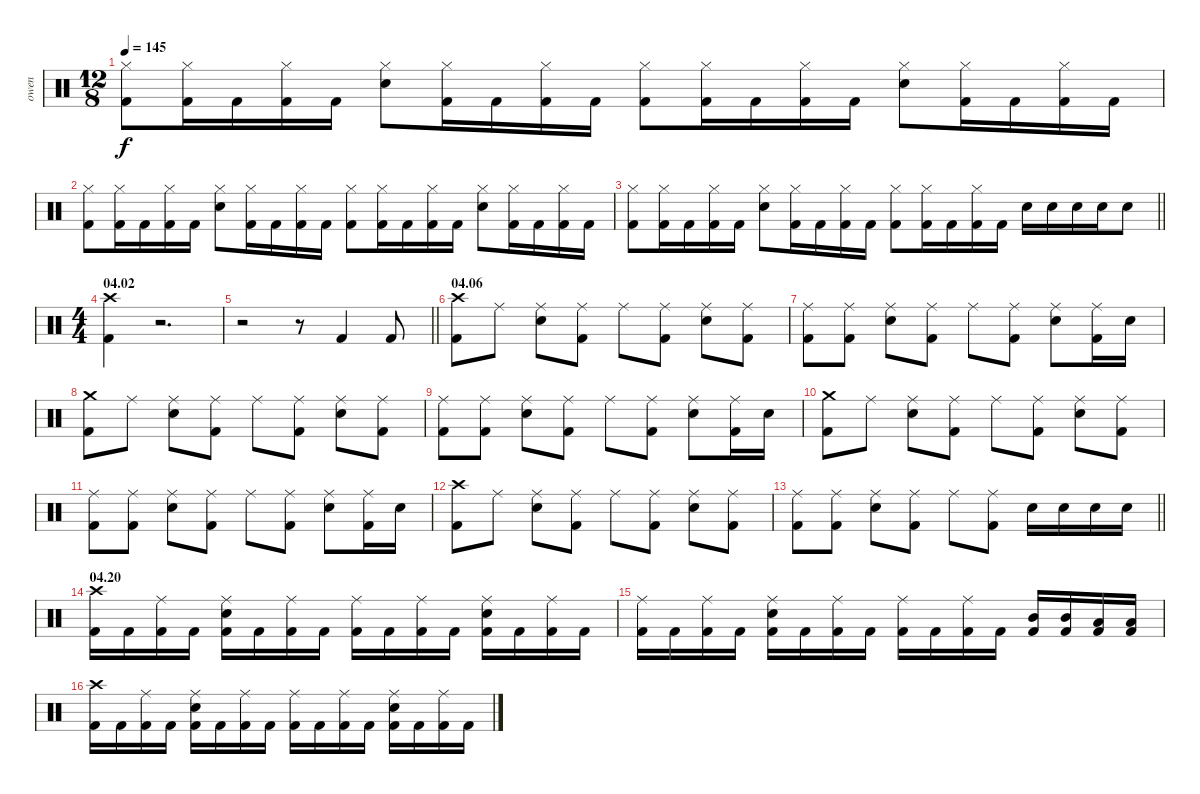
\track ("owen" "owen") {instrument percussion}
\staff {score}
\articulation defaults
\ts (12 8)
\tempo 145
\clef neutral
\ks c
("Hi-Hat (closed)" "Kick (hit) 2").8{dy f} ("Hi-Hat (closed)" "Kick (hit) 2").16 "Kick (hit) 2".16 ("Hi-Hat (closed)" "Kick (hit) 2").16 "Kick (hit) 2".16 ("Hi-Hat (closed)" "Snare (hit) 2").8 ("Hi-Hat (closed)" "Kick (hit) 2").16 "Kick (hit) 2".16 ("Hi-Hat (closed)" "Kick (hit) 2").16 "Kick (hit) 2".16 ("Hi-Hat (closed)" "Kick (hit) 2").8 ("Hi-Hat (closed)" "Kick (hit) 2").16 "Kick (hit) 2".16 ("Hi-Hat (closed)" "Kick (hit) 2").16 "Kick (hit) 2".16 ("Hi-Hat (closed)" "Snare (hit) 2").8 ("Hi-Hat (closed)" "Kick (hit) 2").16 "Kick (hit) 2".16 ("Hi-Hat (closed)" "Kick (hit) 2").16 "Kick (hit) 2".16 |
("Hi-Hat (closed)" "Kick (hit) 2").8 ("Hi-Hat (closed)" "Kick (hit) 2").16 "Kick (hit) 2".16 ("Hi-Hat (closed)" "Kick (hit) 2").16 "Kick (hit) 2".16 ("Hi-Hat (closed)" "Snare (hit) 2").8 ("Hi-Hat (closed)" "Kick (hit) 2").16 "Kick (hit) 2".16 ("Hi-Hat (closed)" "Kick (hit) 2").16 "Kick (hit) 2".16 ("Hi-Hat (closed)" "Kick (hit) 2").8 ("Hi-Hat (closed)" "Kick (hit) 2").16 "Kick (hit) 2".16 ("Hi-Hat (closed)" "Kick (hit) 2").16 "Kick (hit) 2".16 ("Hi-Hat (closed)" "Snare (hit) 2").8 ("Hi-Hat (closed)" "Kick (hit) 2").16 "Kick (hit) 2".16 ("Hi-Hat (closed)" "Kick (hit) 2").16 "Kick (hit) 2".16 |
\barLineRight lightlight
("Hi-Hat (closed)" "Kick (hit) 2").8 ("Hi-Hat (closed)" "Kick (hit) 2").16 "Kick (hit) 2".16 ("Hi-Hat (closed)" "Kick (hit) 2").16 "Kick (hit) 2".16 ("Hi-Hat (closed)" "Snare (hit) 2").8 ("Hi-Hat (closed)" "Kick (hit) 2").16 "Kick (hit) 2".16 ("Hi-Hat (closed)" "Kick (hit) 2").16 "Kick (hit) 2".16 ("Hi-Hat (closed)" "Kick (hit) 2").8 ("Hi-Hat (closed)" "Kick (hit) 2").16 "Kick (hit) 2".16 ("Hi-Hat (closed)" "Kick (hit) 2").16 "Kick (hit) 2".16 "Snare (hit) 2".16 "Snare (hit) 2".16 "Snare (hit) 2".16 "Snare (hit) 2".16 "Snare (hit) 2".8 |
\ts (4 4)
\section ("" "04.02")
("Crash high (hit)" "Kick (hit) 2").4 r.2{d} |
\barLineRight lightlight
r.2 r.8 "Kick (hit) 2".4 "Kick (hit) 2".8 |
\section ("" "04.06")
("Crash high (hit)" "Kick (hit) 2").8 "Ride (middle)".8 ("Ride (middle)" "Snare (hit) 2").8 ("Ride (middle)" "Kick (hit) 2").8 "Ride (middle)".8 ("Ride (middle)" "Kick (hit) 2").8 ("Ride (middle)" "Snare (hit) 2").8 ("Ride (middle)" "Kick (hit) 2").8 |
("Ride (middle)" "Kick (hit) 2").8 ("Ride (middle)" "Kick (hit) 2").8 ("Ride (middle)" "Snare (hit) 2").8 ("Ride (middle)" "Kick (hit) 2").8 "Ride (middle)".8 ("Ride (middle)" "Kick (hit) 2").8 ("Ride (middle)" "Snare (hit) 2").8 ("Ride (middle)" "Kick (hit) 2").16 "Snare (hit) 2".16 |
("Crash medium (hit)" "Kick (hit) 2").8 "Ride (middle)".8 ("Ride (middle)" "Snare (hit) 2").8 ("Ride (middle)" "Kick (hit) 2").8 "Ride (middle)".8 ("Ride (middle)" "Kick (hit) 2").8 ("Ride (middle)" "Snare (hit) 2").8 ("Ride (middle)" "Kick (hit) 2").8 |
("Ride (middle)" "Kick (hit) 2").8 ("Ride (middle)" "Kick (hit) 2").8 ("Ride (middle)" "Snare (hit) 2").8 ("Ride (middle)" "Kick (hit) 2").8 "Ride (middle)".8 ("Ride (middle)" "Kick (hit) 2").8 ("Ride (middle)" "Snare (hit) 2").8 ("Ride (middle)" "Kick (hit) 2").16 "Snare (hit) 2".16 |
("Crash medium (hit)" "Kick (hit) 2").8 "Ride (middle)".8 ("Ride (middle)" "Snare (hit) 2").8 ("Ride (middle)" "Kick (hit) 2").8 "Ride (middle)".8 ("Ride (middle)" "Kick (hit) 2").8 ("Ride (middle)" "Snare (hit) 2").8 ("Ride (middle)" "Kick (hit) 2").8 |
("Ride (middle)" "Kick (hit) 2").8 ("Ride (middle)" "Kick (hit) 2").8 ("Ride (middle)" "Snare (hit) 2").8 ("Ride (middle)" "Kick (hit) 2").8 "Ride (middle)".8 ("Ride (middle)" "Kick (hit) 2").8 ("Ride (middle)" "Snare (hit) 2").8 ("Ride (middle)" "Kick (hit) 2").16 "Snare (hit) 2".16 |
("Crash high (hit)" "Kick (hit) 2").8 "Ride (middle)".8 ("Ride (middle)" "Snare (hit) 2").8 ("Ride (middle)" "Kick (hit) 2").8 "Ride (middle)".8 ("Ride (middle)" "Kick (hit) 2").8 ("Ride (middle)" "Snare (hit) 2").8 ("Ride (middle)" "Kick (hit) 2").8 |
\barLineRight lightlight
("Ride (middle)" "Kick (hit) 2").8 ("Ride (middle)" "Kick (hit) 2").8 ("Ride (middle)" "Snare (hit) 2").8 ("Ride (middle)" "Kick (hit) 2").8 "Ride (middle)".8 ("Ride (middle)" "Kick (hit) 2").8 "Snare (hit) 2".16 "Snare (hit) 2".16 "Snare (hit) 2".16 "Snare (hit) 2".16 |
\section ("" "04.20")
("Crash high (hit)" "Kick (hit) 2").16 "Kick (hit) 2".16 ("Ride (middle)" "Kick (hit) 2").16 "Kick (hit) 2".16 ("Ride (middle)" "Snare (hit) 2" "Kick (hit) 2").16 "Kick (hit) 2".16 ("Ride (middle)" "Kick (hit) 2").16 "Kick (hit) 2".16 ("Ride (middle)" "Kick (hit) 2").16 "Kick (hit) 2".16 ("Ride (middle)" "Kick (hit) 2").16 "Kick (hit) 2".16 ("Ride (middle)" "Snare (hit) 2" "Kick (hit) 2").16 "Kick (hit) 2".16 ("Ride (middle)" "Kick (hit) 2").16 "Kick (hit) 2".16 |
("Ride (middle)" "Kick (hit) 2").16 "Kick (hit) 2".16 ("Ride (middle)" "Kick (hit) 2").16 "Kick (hit) 2".16 ("Ride (middle)" "Snare (hit) 2" "Kick (hit) 2").16 "Kick (hit) 2".16 ("Ride (middle)" "Kick (hit) 2").16 "Kick (hit) 2".16 ("Ride (middle)" "Kick (hit) 2").16 "Kick (hit) 2".16 ("Ride (middle)" "Kick (hit) 2").16 "Kick (hit) 2".16 ("Mid Tom (hit)" "Kick (hit) 2").16 ("Mid Tom (hit)" "Kick (hit) 2").16 ("Low Tom (hit)" "Kick (hit) 2").16 ("Low Tom (hit)" "Kick (hit) 2").16 |
("Crash high (hit)" "Kick (hit) 2").16 "Kick (hit) 2".16 ("Ride (middle)" "Kick (hit) 2").16 "Kick (hit) 2".16 ("Ride (middle)" "Snare (hit) 2" "Kick (hit) 2").16 "Kick (hit) 2".16 ("Ride (middle)" "Kick (hit) 2").16 "Kick (hit) 2".16 ("Ride (middle)" "Kick (hit) 2").16 "Kick (hit) 2".16 ("Ride (middle)" "Kick (hit) 2").16 "Kick (hit) 2".16 ("Ride (middle)" "Snare (hit) 2" "Kick (hit) 2").16 "Kick (hit) 2".16 ("Ride (middle)" "Kick (hit) 2").16 "Kick (hit) 2".16
